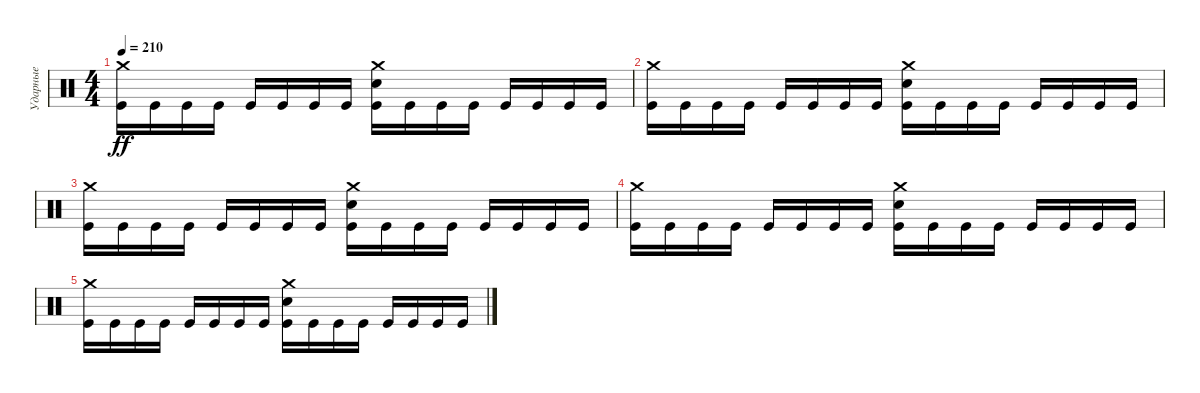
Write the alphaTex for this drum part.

\track ("Ударные" "Ударные") {instrument percussion}
\staff {score}
\articulation defaults
\ts (4 4)
\tempo 210
\clef neutral
\ks c
("Crash medium (hit)" "Kick (hit)").16{dy ff} "Kick (hit)".16 "Kick (hit)".16 "Kick (hit)".16 "Kick (hit)".16 "Kick (hit)".16 "Kick (hit)".16 "Kick (hit)".16 ("Crash medium (hit)" "Electric Snare (hit)" "Kick (hit)").16 "Kick (hit)".16 "Kick (hit)".16 "Kick (hit)".16 "Kick (hit)".16 "Kick (hit)".16 "Kick (hit)".16 "Kick (hit)".16 |
("Crash medium (hit)" "Kick (hit)").16 "Kick (hit)".16 "Kick (hit)".16 "Kick (hit)".16 "Kick (hit)".16 "Kick (hit)".16 "Kick (hit)".16 "Kick (hit)".16 ("Crash medium (hit)" "Electric Snare (hit)" "Kick (hit)").16 "Kick (hit)".16 "Kick (hit)".16 "Kick (hit)".16 "Kick (hit)".16 "Kick (hit)".16 "Kick (hit)".16 "Kick (hit)".16 |
("Crash medium (hit)" "Kick (hit)").16 "Kick (hit)".16 "Kick (hit)".16 "Kick (hit)".16 "Kick (hit)".16 "Kick (hit)".16 "Kick (hit)".16 "Kick (hit)".16 ("Crash medium (hit)" "Electric Snare (hit)" "Kick (hit)").16 "Kick (hit)".16 "Kick (hit)".16 "Kick (hit)".16 "Kick (hit)".16 "Kick (hit)".16 "Kick (hit)".16 "Kick (hit)".16 |
("Crash medium (hit)" "Kick (hit)").16 "Kick (hit)".16 "Kick (hit)".16 "Kick (hit)".16 "Kick (hit)".16 "Kick (hit)".16 "Kick (hit)".16 "Kick (hit)".16 ("Crash medium (hit)" "Electric Snare (hit)" "Kick (hit)").16 "Kick (hit)".16 "Kick (hit)".16 "Kick (hit)".16 "Kick (hit)".16 "Kick (hit)".16 "Kick (hit)".16 "Kick (hit)".16 |
("Crash medium (hit)" "Kick (hit)").16 "Kick (hit)".16 "Kick (hit)".16 "Kick (hit)".16 "Kick (hit)".16 "Kick (hit)".16 "Kick (hit)".16 "Kick (hit)".16 ("Crash medium (hit)" "Electric Snare (hit)" "Kick (hit)").16 "Kick (hit)".16 "Kick (hit)".16 "Kick (hit)".16 "Kick (hit)".16 "Kick (hit)".16 "Kick (hit)".16 "Kick (hit)".16
